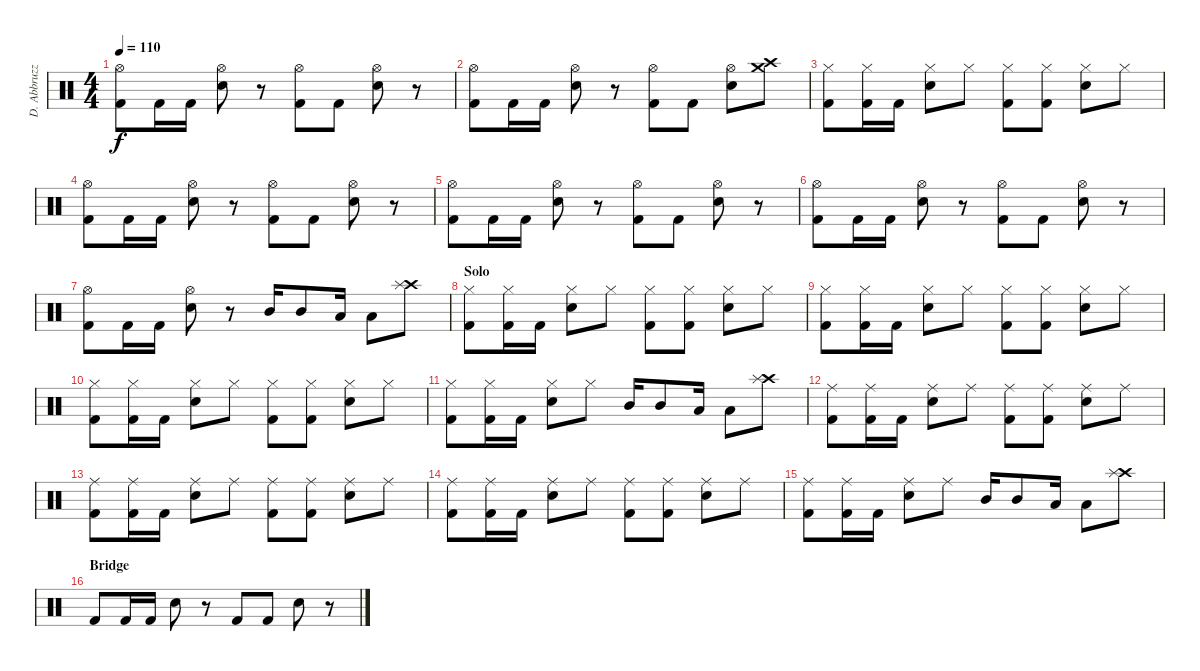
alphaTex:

\track ("D. Abbruzzese" "D. Abbruzz") {instrument percussion}
\staff {score}
\articulation defaults
\ts (4 4)
\tempo 110
\clef neutral
\ks c
("Hi-Hat (open)" "Kick (hit) 2").8{dy f} "Kick (hit) 2".16 "Kick (hit) 2".16 ("Hi-Hat (open)" "Snare (hit) 2").8 r.8 ("Hi-Hat (open)" "Kick (hit) 2").8 "Kick (hit) 2".8 ("Hi-Hat (open)" "Snare (hit) 2").8 r.8 |
("Hi-Hat (open)" "Kick (hit) 2").8 "Kick (hit) 2".16 "Kick (hit) 2".16 ("Hi-Hat (open)" "Snare (hit) 2").8 r.8 ("Hi-Hat (open)" "Kick (hit) 2").8 "Kick (hit) 2".8 ("Hi-Hat (open)" "Snare (hit) 2").8 ("Crash high (hit)" "Crash medium (hit)").8 |
("Hi-Hat (closed)" "Kick (hit) 2").8 ("Hi-Hat (closed)" "Kick (hit) 2").16 "Kick (hit) 2".16 ("Hi-Hat (closed)" "Snare (hit) 2").8 "Hi-Hat (closed)".8 ("Hi-Hat (closed)" "Kick (hit) 2").8 ("Hi-Hat (closed)" "Kick (hit) 2").8 ("Hi-Hat (closed)" "Snare (hit) 2").8 "Hi-Hat (closed)".8 |
("Hi-Hat (open)" "Kick (hit) 2").8 "Kick (hit) 2".16 "Kick (hit) 2".16 ("Hi-Hat (open)" "Snare (hit) 2").8 r.8 ("Hi-Hat (open)" "Kick (hit) 2").8 "Kick (hit) 2".8 ("Hi-Hat (open)" "Snare (hit) 2").8 r.8 |
("Hi-Hat (open)" "Kick (hit) 2").8 "Kick (hit) 2".16 "Kick (hit) 2".16 ("Hi-Hat (open)" "Snare (hit) 2").8 r.8 ("Hi-Hat (open)" "Kick (hit) 2").8 "Kick (hit) 2".8 ("Hi-Hat (open)" "Snare (hit) 2").8 r.8 |
("Hi-Hat (open)" "Kick (hit) 2").8 "Kick (hit) 2".16 "Kick (hit) 2".16 ("Hi-Hat (open)" "Snare (hit) 2").8 r.8 ("Hi-Hat (open)" "Kick (hit) 2").8 "Kick (hit) 2".8 ("Hi-Hat (open)" "Snare (hit) 2").8 r.8 |
("Hi-Hat (open)" "Kick (hit) 2").8 "Kick (hit) 2".16 "Kick (hit) 2".16 ("Hi-Hat (open)" "Snare (hit) 2").8 r.8 "Mid Tom (hit)".16 "Mid Tom (hit)".8 "Low Tom (hit)".16 "Low Tom (hit)".8 ("Crash high (hit)" "Splash (hit)").8 |
\section ("" "Solo")
("Hi-Hat (closed)" "Kick (hit) 2").8 ("Hi-Hat (closed)" "Kick (hit) 2").16 "Kick (hit) 2".16 ("Hi-Hat (closed)" "Snare (hit) 2").8 "Hi-Hat (closed)".8 ("Hi-Hat (closed)" "Kick (hit) 2").8 ("Hi-Hat (closed)" "Kick (hit) 2").8 ("Hi-Hat (closed)" "Snare (hit) 2").8 "Hi-Hat (closed)".8 |
("Hi-Hat (closed)" "Kick (hit) 2").8 ("Hi-Hat (closed)" "Kick (hit) 2").16 "Kick (hit) 2".16 ("Hi-Hat (closed)" "Snare (hit) 2").8 "Hi-Hat (closed)".8 ("Hi-Hat (closed)" "Kick (hit) 2").8 ("Hi-Hat (closed)" "Kick (hit) 2").8 ("Hi-Hat (closed)" "Snare (hit) 2").8 "Hi-Hat (closed)".8 |
("Hi-Hat (closed)" "Kick (hit) 2").8 ("Hi-Hat (closed)" "Kick (hit) 2").16 "Kick (hit) 2".16 ("Hi-Hat (closed)" "Snare (hit) 2").8 "Hi-Hat (closed)".8 ("Hi-Hat (closed)" "Kick (hit) 2").8 ("Hi-Hat (closed)" "Kick (hit) 2").8 ("Hi-Hat (closed)" "Snare (hit) 2").8 "Hi-Hat (closed)".8 |
("Hi-Hat (closed)" "Kick (hit) 2").8 ("Hi-Hat (closed)" "Kick (hit) 2").16 "Kick (hit) 2".16 ("Hi-Hat (closed)" "Snare (hit) 2").8 "Hi-Hat (closed)".8 "Mid Tom (hit)".16 "Mid Tom (hit)".8 "Low Tom (hit)".16 "Low Tom (hit)".8 ("Crash high (hit)" "Splash (hit)").8 |
("Ride (middle)" "Kick (hit) 2").8 ("Ride (middle)" "Kick (hit) 2").16 "Kick (hit) 2".16 ("Ride (middle)" "Snare (hit) 2").8 "Ride (middle)".8 ("Ride (middle)" "Kick (hit) 2").8 ("Ride (middle)" "Kick (hit) 2").8 ("Ride (middle)" "Snare (hit) 2").8 "Ride (middle)".8 |
("Ride (middle)" "Kick (hit) 2").8 ("Ride (middle)" "Kick (hit) 2").16 "Kick (hit) 2".16 ("Ride (middle)" "Snare (hit) 2").8 "Ride (middle)".8 ("Ride (middle)" "Kick (hit) 2").8 ("Ride (middle)" "Kick (hit) 2").8 ("Ride (middle)" "Snare (hit) 2").8 "Ride (middle)".8 |
("Ride (middle)" "Kick (hit) 2").8 ("Ride (middle)" "Kick (hit) 2").16 "Kick (hit) 2".16 ("Ride (middle)" "Snare (hit) 2").8 "Ride (middle)".8 ("Ride (middle)" "Kick (hit) 2").8 ("Ride (middle)" "Kick (hit) 2").8 ("Ride (middle)" "Snare (hit) 2").8 "Ride (middle)".8 |
("Ride (middle)" "Kick (hit) 2").8 ("Ride (middle)" "Kick (hit) 2").16 "Kick (hit) 2".16 ("Ride (middle)" "Snare (hit) 2").8 "Ride (middle)".8 "Mid Tom (hit)".16 "Mid Tom (hit)".8 "Low Tom (hit)".16 "Low Tom (hit)".8 ("Crash high (hit)" "Splash (hit)").8 |
\section ("" "Bridge")
"Kick (hit) 2".8 "Kick (hit) 2".16 "Kick (hit) 2".16 "Snare (hit) 2".8 r.8 "Kick (hit) 2".8 "Kick (hit) 2".8 "Snare (hit) 2".8 r.8
